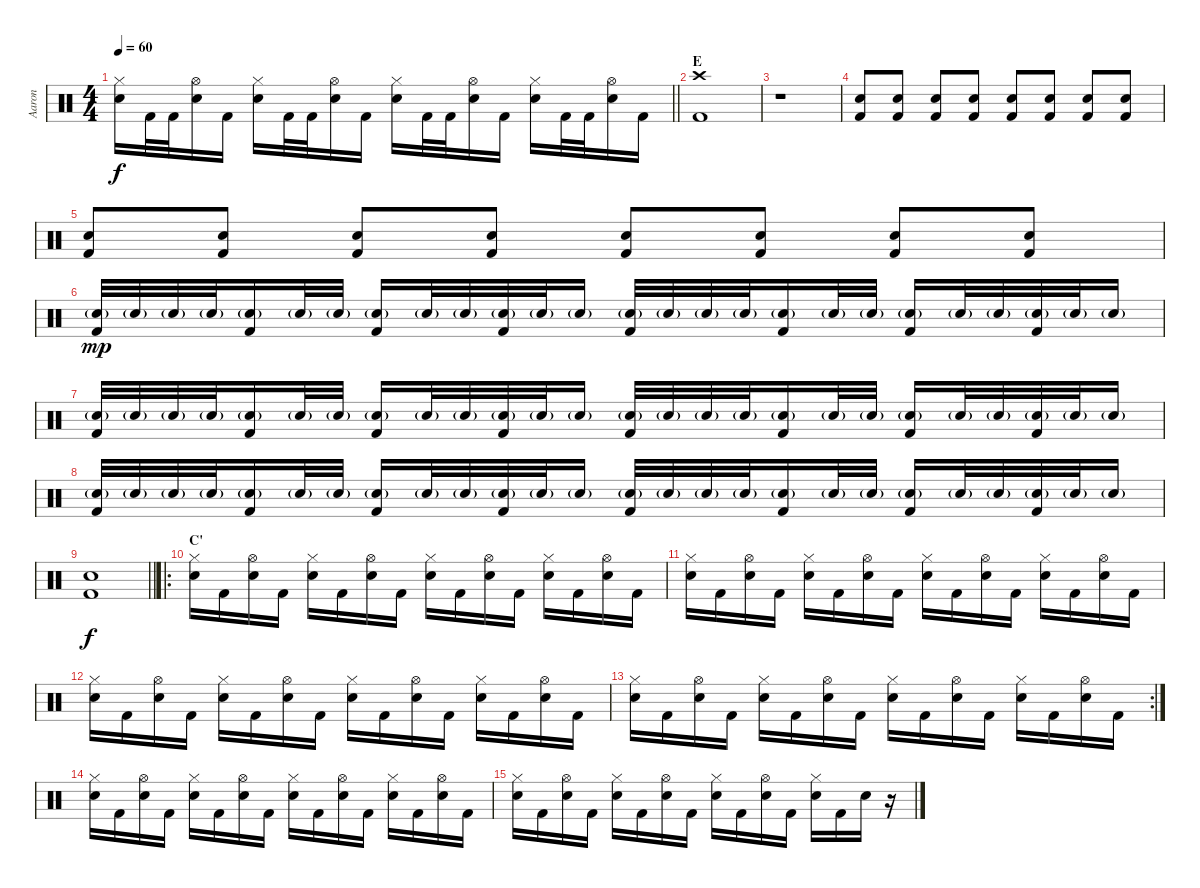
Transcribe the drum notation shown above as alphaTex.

\track ("Aaron" "Aaron") {instrument percussion}
\staff {score}
\articulation defaults
\ts (4 4)
\tempo 60
\clef neutral
\barLineRight lightlight
\ks c
("Hi-Hat (closed)" "Snare (hit) 2").16{dy f} "Kick (hit) 2".32 "Kick (hit) 2".32 ("Hi-Hat (open)" "Snare (hit) 2").16 "Kick (hit) 2".16 ("Hi-Hat (closed)" "Snare (hit) 2").16 "Kick (hit) 2".32 "Kick (hit) 2".32 ("Hi-Hat (open)" "Snare (hit) 2").16 "Kick (hit) 2".16 ("Hi-Hat (closed)" "Snare (hit) 2").16 "Kick (hit) 2".32 "Kick (hit) 2".32 ("Hi-Hat (open)" "Snare (hit) 2").16 "Kick (hit) 2".16 ("Hi-Hat (closed)" "Snare (hit) 2").16 "Kick (hit) 2".32 "Kick (hit) 2".32 ("Hi-Hat (open)" "Snare (hit) 2").16 "Kick (hit) 2".16 |
\section ("" "E")
("Crash high (hit)" "Kick (hit) 2").1 |
r.1 |
("Hand Clap (hit)" "Kick (hit) 2").8 ("Hand Clap (hit)" "Kick (hit) 2").8 ("Hand Clap (hit)" "Kick (hit) 2").8 ("Hand Clap (hit)" "Kick (hit) 2").8 ("Hand Clap (hit)" "Kick (hit) 2").8 ("Hand Clap (hit)" "Kick (hit) 2").8 ("Hand Clap (hit)" "Kick (hit) 2").8 ("Hand Clap (hit)" "Kick (hit) 2").8 |
("Hand Clap (hit)" "Kick (hit) 2").8 ("Hand Clap (hit)" "Kick (hit) 2").8 ("Hand Clap (hit)" "Kick (hit) 2").8 ("Hand Clap (hit)" "Kick (hit) 2").8 ("Hand Clap (hit)" "Kick (hit) 2").8 ("Hand Clap (hit)" "Kick (hit) 2").8 ("Hand Clap (hit)" "Kick (hit) 2").8 ("Hand Clap (hit)" "Kick (hit) 2").8 |
("Snare (hit) 2"{g} "Kick (hit) 2").32{dy mp} "Snare (hit) 2"{g}.32 "Snare (hit) 2"{g}.32 "Snare (hit) 2"{g}.32 ("Snare (hit) 2"{g} "Kick (hit) 2").16 "Snare (hit) 2"{g}.32 "Snare (hit) 2"{g}.32 ("Snare (hit) 2"{g} "Kick (hit) 2").16 "Snare (hit) 2"{g}.32 "Snare (hit) 2"{g}.32 ("Snare (hit) 2"{g} "Kick (hit) 2").32 "Snare (hit) 2"{g}.32 "Snare (hit) 2"{g}.16 ("Snare (hit) 2"{g} "Kick (hit) 2").32 "Snare (hit) 2"{g}.32 "Snare (hit) 2"{g}.32 "Snare (hit) 2"{g}.32 ("Snare (hit) 2"{g} "Kick (hit) 2").16 "Snare (hit) 2"{g}.32 "Snare (hit) 2"{g}.32 ("Snare (hit) 2"{g} "Kick (hit) 2").16 "Snare (hit) 2"{g}.32 "Snare (hit) 2"{g}.32 ("Snare (hit) 2"{g} "Kick (hit) 2").32 "Snare (hit) 2"{g}.32 "Snare (hit) 2"{g}.16 |
("Snare (hit) 2"{g} "Kick (hit) 2").32 "Snare (hit) 2"{g}.32 "Snare (hit) 2"{g}.32 "Snare (hit) 2"{g}.32 ("Snare (hit) 2"{g} "Kick (hit) 2").16 "Snare (hit) 2"{g}.32 "Snare (hit) 2"{g}.32 ("Snare (hit) 2"{g} "Kick (hit) 2").16 "Snare (hit) 2"{g}.32 "Snare (hit) 2"{g}.32 ("Snare (hit) 2"{g} "Kick (hit) 2").32 "Snare (hit) 2"{g}.32 "Snare (hit) 2"{g}.16 ("Snare (hit) 2"{g} "Kick (hit) 2").32 "Snare (hit) 2"{g}.32 "Snare (hit) 2"{g}.32 "Snare (hit) 2"{g}.32 ("Snare (hit) 2"{g} "Kick (hit) 2").16 "Snare (hit) 2"{g}.32 "Snare (hit) 2"{g}.32 ("Snare (hit) 2"{g} "Kick (hit) 2").16 "Snare (hit) 2"{g}.32 "Snare (hit) 2"{g}.32 ("Snare (hit) 2"{g} "Kick (hit) 2").32 "Snare (hit) 2"{g}.32 "Snare (hit) 2"{g}.16 |
("Snare (hit) 2"{g} "Kick (hit) 2").32 "Snare (hit) 2"{g}.32 "Snare (hit) 2"{g}.32 "Snare (hit) 2"{g}.32 ("Snare (hit) 2"{g} "Kick (hit) 2").16 "Snare (hit) 2"{g}.32 "Snare (hit) 2"{g}.32 ("Snare (hit) 2"{g} "Kick (hit) 2").16 "Snare (hit) 2"{g}.32 "Snare (hit) 2"{g}.32 ("Snare (hit) 2"{g} "Kick (hit) 2").32 "Snare (hit) 2"{g}.32 "Snare (hit) 2"{g}.16 ("Snare (hit) 2"{g} "Kick (hit) 2").32 "Snare (hit) 2"{g}.32 "Snare (hit) 2"{g}.32 "Snare (hit) 2"{g}.32 ("Snare (hit) 2"{g} "Kick (hit) 2").16 "Snare (hit) 2"{g}.32 "Snare (hit) 2"{g}.32 ("Snare (hit) 2"{g} "Kick (hit) 2").16 "Snare (hit) 2"{g}.32 "Snare (hit) 2"{g}.32 ("Snare (hit) 2"{g} "Kick (hit) 2").32 "Snare (hit) 2"{g}.32 "Snare (hit) 2"{g}.16 |
\barLineRight lightlight
("Snare (hit) 2" "Kick (hit) 2").1{dy f} |
\ro
\section ("" "C'")
("Hi-Hat (closed)" "Snare (hit) 2").16 "Kick (hit) 2".16 ("Hi-Hat (open)" "Snare (hit) 2").16 "Kick (hit) 2".16 ("Hi-Hat (closed)" "Snare (hit) 2").16 "Kick (hit) 2".16 ("Hi-Hat (open)" "Snare (hit) 2").16 "Kick (hit) 2".16 ("Hi-Hat (closed)" "Snare (hit) 2").16 "Kick (hit) 2".16 ("Hi-Hat (open)" "Snare (hit) 2").16 "Kick (hit) 2".16 ("Hi-Hat (closed)" "Snare (hit) 2").16 "Kick (hit) 2".16 ("Hi-Hat (open)" "Snare (hit) 2").16 "Kick (hit) 2".16 |
("Hi-Hat (closed)" "Snare (hit) 2").16 "Kick (hit) 2".16 ("Hi-Hat (open)" "Snare (hit) 2").16 "Kick (hit) 2".16 ("Hi-Hat (closed)" "Snare (hit) 2").16 "Kick (hit) 2".16 ("Hi-Hat (open)" "Snare (hit) 2").16 "Kick (hit) 2".16 ("Hi-Hat (closed)" "Snare (hit) 2").16 "Kick (hit) 2".16 ("Hi-Hat (open)" "Snare (hit) 2").16 "Kick (hit) 2".16 ("Hi-Hat (closed)" "Snare (hit) 2").16 "Kick (hit) 2".16 ("Hi-Hat (open)" "Snare (hit) 2").16 "Kick (hit) 2".16 |
("Hi-Hat (closed)" "Snare (hit) 2").16 "Kick (hit) 2".16 ("Hi-Hat (open)" "Snare (hit) 2").16 "Kick (hit) 2".16 ("Hi-Hat (closed)" "Snare (hit) 2").16 "Kick (hit) 2".16 ("Hi-Hat (open)" "Snare (hit) 2").16 "Kick (hit) 2".16 ("Hi-Hat (closed)" "Snare (hit) 2").16 "Kick (hit) 2".16 ("Hi-Hat (open)" "Snare (hit) 2").16 "Kick (hit) 2".16 ("Hi-Hat (closed)" "Snare (hit) 2").16 "Kick (hit) 2".16 ("Hi-Hat (open)" "Snare (hit) 2").16 "Kick (hit) 2".16 |
\rc 2
("Hi-Hat (closed)" "Snare (hit) 2").16 "Kick (hit) 2".16 ("Hi-Hat (open)" "Snare (hit) 2").16 "Kick (hit) 2".16 ("Hi-Hat (closed)" "Snare (hit) 2").16 "Kick (hit) 2".16 ("Hi-Hat (open)" "Snare (hit) 2").16 "Kick (hit) 2".16 ("Hi-Hat (closed)" "Snare (hit) 2").16 "Kick (hit) 2".16 ("Hi-Hat (open)" "Snare (hit) 2").16 "Kick (hit) 2".16 ("Hi-Hat (closed)" "Snare (hit) 2").16 "Kick (hit) 2".16 ("Hi-Hat (open)" "Snare (hit) 2").16 "Kick (hit) 2".16 |
("Hi-Hat (closed)" "Snare (hit) 2").16 "Kick (hit) 2".16 ("Hi-Hat (open)" "Snare (hit) 2").16 "Kick (hit) 2".16 ("Hi-Hat (closed)" "Snare (hit) 2").16 "Kick (hit) 2".16 ("Hi-Hat (open)" "Snare (hit) 2").16 "Kick (hit) 2".16 ("Hi-Hat (closed)" "Snare (hit) 2").16 "Kick (hit) 2".16 ("Hi-Hat (open)" "Snare (hit) 2").16 "Kick (hit) 2".16 ("Hi-Hat (closed)" "Snare (hit) 2").16 "Kick (hit) 2".16 ("Hi-Hat (open)" "Snare (hit) 2").16 "Kick (hit) 2".16 |
("Hi-Hat (closed)" "Snare (hit) 2").16 "Kick (hit) 2".16 ("Hi-Hat (open)" "Snare (hit) 2").16 "Kick (hit) 2".16 ("Hi-Hat (closed)" "Snare (hit) 2").16 "Kick (hit) 2".16 ("Hi-Hat (open)" "Snare (hit) 2").16 "Kick (hit) 2".16 ("Hi-Hat (closed)" "Snare (hit) 2").16 "Kick (hit) 2".16 ("Hi-Hat (open)" "Snare (hit) 2").16 "Kick (hit) 2".16 ("Hi-Hat (closed)" "Snare (hit) 2").16 "Kick (hit) 2".16 "Snare (hit) 2".16 r.16
